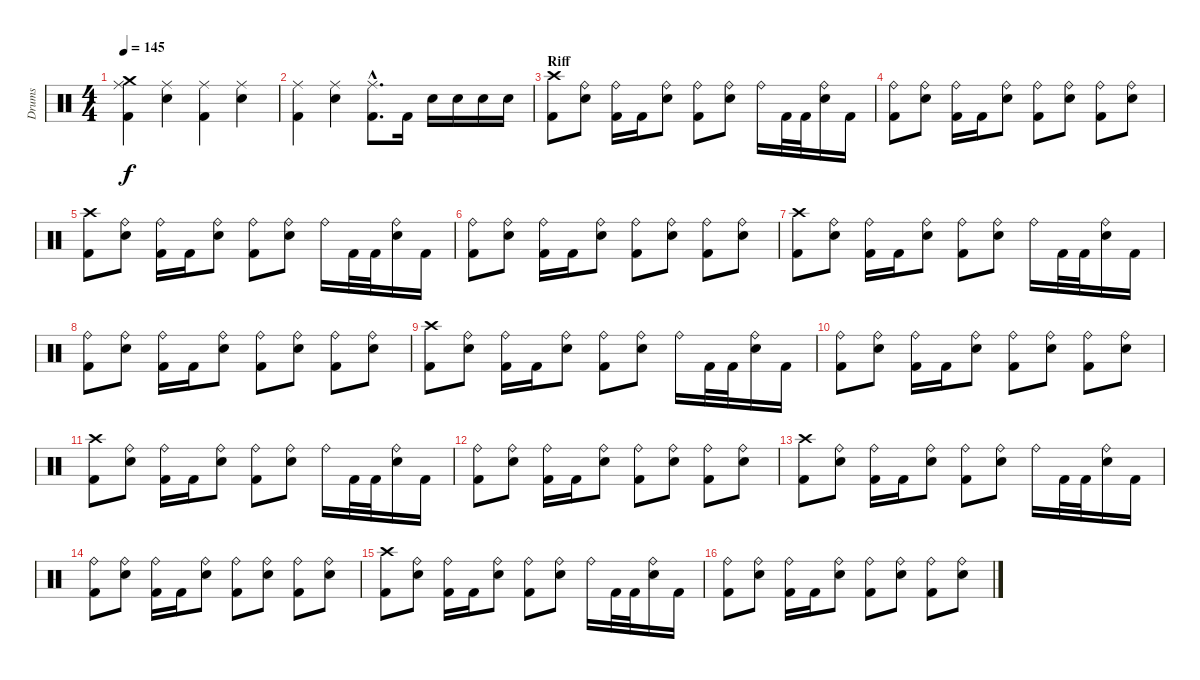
\track ("Drums" "Drums") {instrument percussion}
\staff {score}
\articulation defaults
\ts (4 4)
\tempo 145
\clef neutral
\ks c
("Crash medium (hit)" "Ride (middle)" "Kick (hit) 2").4{dy f} ("Ride (middle)" "Electric Snare (hit)").4 ("Ride (middle)" "Kick (hit) 2").4 ("Ride (middle)" "Electric Snare (hit)").4 |
("Ride (middle)" "Kick (hit) 2").4 ("Ride (middle)" "Electric Snare (hit)").4 ("Ride (middle)"{hac} "Kick (hit) 2"{hac}).8{d} "Kick (hit) 2".16 "Electric Snare (hit)".16 "Electric Snare (hit)".16 "Electric Snare (hit)".16 "Electric Snare (hit)".16 |
\section ("" "Riff")
("Crash high (hit)" "Kick (hit) 2").8 ("Ride (bell)" "Electric Snare (hit)").8 ("Ride (bell)" "Kick (hit) 2").16 "Kick (hit) 2".16 ("Ride (bell)" "Electric Snare (hit)").8 ("Ride (bell)" "Kick (hit) 2").8 ("Ride (bell)" "Electric Snare (hit)").8 "Ride (bell)".16 "Kick (hit) 2".32 "Kick (hit) 2".32 ("Ride (bell)" "Electric Snare (hit)").16 "Kick (hit) 2".16 |
("Ride (bell)" "Kick (hit) 2").8 ("Ride (bell)" "Electric Snare (hit)").8 ("Ride (bell)" "Kick (hit) 2").16 "Kick (hit) 2".16 ("Ride (bell)" "Electric Snare (hit)").8 ("Ride (bell)" "Kick (hit) 2").8 ("Ride (bell)" "Electric Snare (hit)").8 ("Ride (bell)" "Kick (hit) 2").8 ("Ride (bell)" "Electric Snare (hit)").8 |
("Crash high (hit)" "Kick (hit) 2").8 ("Ride (bell)" "Electric Snare (hit)").8 ("Ride (bell)" "Kick (hit) 2").16 "Kick (hit) 2".16 ("Ride (bell)" "Electric Snare (hit)").8 ("Ride (bell)" "Kick (hit) 2").8 ("Ride (bell)" "Electric Snare (hit)").8 "Ride (bell)".16 "Kick (hit) 2".32 "Kick (hit) 2".32 ("Ride (bell)" "Electric Snare (hit)").16 "Kick (hit) 2".16 |
("Ride (bell)" "Kick (hit) 2").8 ("Ride (bell)" "Electric Snare (hit)").8 ("Ride (bell)" "Kick (hit) 2").16 "Kick (hit) 2".16 ("Ride (bell)" "Electric Snare (hit)").8 ("Ride (bell)" "Kick (hit) 2").8 ("Ride (bell)" "Electric Snare (hit)").8 ("Ride (bell)" "Kick (hit) 2").8 ("Ride (bell)" "Electric Snare (hit)").8 |
("Crash high (hit)" "Kick (hit) 2").8 ("Ride (bell)" "Electric Snare (hit)").8 ("Ride (bell)" "Kick (hit) 2").16 "Kick (hit) 2".16 ("Ride (bell)" "Electric Snare (hit)").8 ("Ride (bell)" "Kick (hit) 2").8 ("Ride (bell)" "Electric Snare (hit)").8 "Ride (bell)".16 "Kick (hit) 2".32 "Kick (hit) 2".32 ("Ride (bell)" "Electric Snare (hit)").16 "Kick (hit) 2".16 |
("Ride (bell)" "Kick (hit) 2").8 ("Ride (bell)" "Electric Snare (hit)").8 ("Ride (bell)" "Kick (hit) 2").16 "Kick (hit) 2".16 ("Ride (bell)" "Electric Snare (hit)").8 ("Ride (bell)" "Kick (hit) 2").8 ("Ride (bell)" "Electric Snare (hit)").8 ("Ride (bell)" "Kick (hit) 2").8 ("Ride (bell)" "Electric Snare (hit)").8 |
("Crash high (hit)" "Kick (hit) 2").8 ("Ride (bell)" "Electric Snare (hit)").8 ("Ride (bell)" "Kick (hit) 2").16 "Kick (hit) 2".16 ("Ride (bell)" "Electric Snare (hit)").8 ("Ride (bell)" "Kick (hit) 2").8 ("Ride (bell)" "Electric Snare (hit)").8 "Ride (bell)".16 "Kick (hit) 2".32 "Kick (hit) 2".32 ("Ride (bell)" "Electric Snare (hit)").16 "Kick (hit) 2".16 |
("Ride (bell)" "Kick (hit) 2").8 ("Ride (bell)" "Electric Snare (hit)").8 ("Ride (bell)" "Kick (hit) 2").16 "Kick (hit) 2".16 ("Ride (bell)" "Electric Snare (hit)").8 ("Ride (bell)" "Kick (hit) 2").8 ("Ride (bell)" "Electric Snare (hit)").8 ("Ride (bell)" "Kick (hit) 2").8 ("Ride (bell)" "Electric Snare (hit)").8 |
("Crash high (hit)" "Kick (hit) 2").8 ("Ride (bell)" "Electric Snare (hit)").8 ("Ride (bell)" "Kick (hit) 2").16 "Kick (hit) 2".16 ("Ride (bell)" "Electric Snare (hit)").8 ("Ride (bell)" "Kick (hit) 2").8 ("Ride (bell)" "Electric Snare (hit)").8 "Ride (bell)".16 "Kick (hit) 2".32 "Kick (hit) 2".32 ("Ride (bell)" "Electric Snare (hit)").16 "Kick (hit) 2".16 |
("Ride (bell)" "Kick (hit) 2").8 ("Ride (bell)" "Electric Snare (hit)").8 ("Ride (bell)" "Kick (hit) 2").16 "Kick (hit) 2".16 ("Ride (bell)" "Electric Snare (hit)").8 ("Ride (bell)" "Kick (hit) 2").8 ("Ride (bell)" "Electric Snare (hit)").8 ("Ride (bell)" "Kick (hit) 2").8 ("Ride (bell)" "Electric Snare (hit)").8 |
("Crash high (hit)" "Kick (hit) 2").8 ("Ride (bell)" "Electric Snare (hit)").8 ("Ride (bell)" "Kick (hit) 2").16 "Kick (hit) 2".16 ("Ride (bell)" "Electric Snare (hit)").8 ("Ride (bell)" "Kick (hit) 2").8 ("Ride (bell)" "Electric Snare (hit)").8 "Ride (bell)".16 "Kick (hit) 2".32 "Kick (hit) 2".32 ("Ride (bell)" "Electric Snare (hit)").16 "Kick (hit) 2".16 |
("Ride (bell)" "Kick (hit) 2").8 ("Ride (bell)" "Electric Snare (hit)").8 ("Ride (bell)" "Kick (hit) 2").16 "Kick (hit) 2".16 ("Ride (bell)" "Electric Snare (hit)").8 ("Ride (bell)" "Kick (hit) 2").8 ("Ride (bell)" "Electric Snare (hit)").8 ("Ride (bell)" "Kick (hit) 2").8 ("Ride (bell)" "Electric Snare (hit)").8 |
("Crash high (hit)" "Kick (hit) 2").8 ("Ride (bell)" "Electric Snare (hit)").8 ("Ride (bell)" "Kick (hit) 2").16 "Kick (hit) 2".16 ("Ride (bell)" "Electric Snare (hit)").8 ("Ride (bell)" "Kick (hit) 2").8 ("Ride (bell)" "Electric Snare (hit)").8 "Ride (bell)".16 "Kick (hit) 2".32 "Kick (hit) 2".32 ("Ride (bell)" "Electric Snare (hit)").16 "Kick (hit) 2".16 |
("Ride (bell)" "Kick (hit) 2").8 ("Ride (bell)" "Electric Snare (hit)").8 ("Ride (bell)" "Kick (hit) 2").16 "Kick (hit) 2".16 ("Ride (bell)" "Electric Snare (hit)").8 ("Ride (bell)" "Kick (hit) 2").8 ("Ride (bell)" "Electric Snare (hit)").8 ("Ride (bell)" "Kick (hit) 2").8 ("Ride (bell)" "Electric Snare (hit)").8
